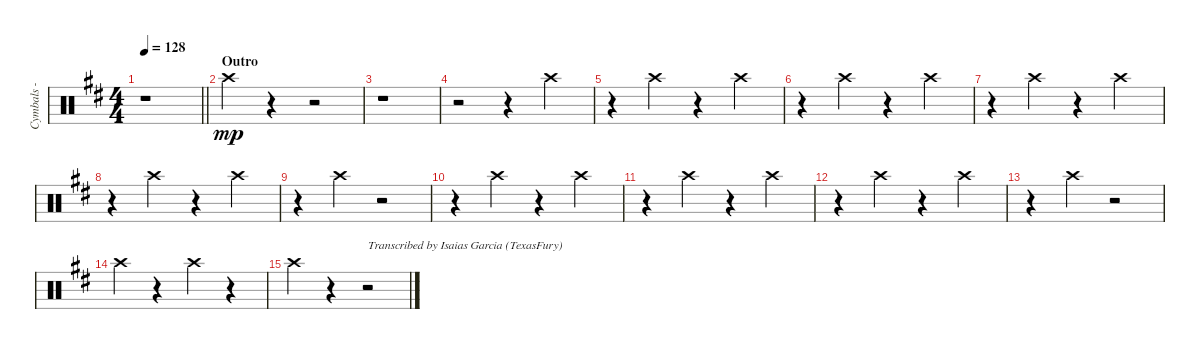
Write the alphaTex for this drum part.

\track ("Cymbals - crash" "Cymbals - ") {instrument percussion}
\staff {score}
\articulation defaults
\ts (4 4)
\tempo 128
\clef neutral
\barLineRight lightlight
\ks bminor
r.1{dy mp} |
\section ("" "Outro")
"Crash high (hit)".4 r.4 r.2 |
r.1 |
r.2 r.4{beam merge} "Crash high (hit)".4 |
r.4{beam merge} "Crash high (hit)".4 r.4{beam merge} "Crash high (hit)".4 |
r.4{beam merge} "Crash high (hit)".4 r.4{beam merge} "Crash high (hit)".4 |
r.4{beam merge} "Crash high (hit)".4 r.4{beam merge} "Crash high (hit)".4 |
r.4{beam merge} "Crash high (hit)".4 r.4{beam merge} "Crash high (hit)".4 |
r.4{beam merge} "Crash high (hit)".4 r.2 |
r.4{beam merge} "Crash high (hit)".4 r.4{beam merge} "Crash high (hit)".4 |
r.4{beam merge} "Crash high (hit)".4 r.4{beam merge} "Crash high (hit)".4 |
r.4{beam merge} "Crash high (hit)".4 r.4{beam merge} "Crash high (hit)".4 |
r.4{beam merge} "Crash high (hit)".4 r.2 |
"Crash high (hit)".4 r.4 "Crash high (hit)".4 r.4 |
"Crash high (hit)".4 r.4 r.2{txt "Transcribed by Isaias Garcia (TexasFury)"}
